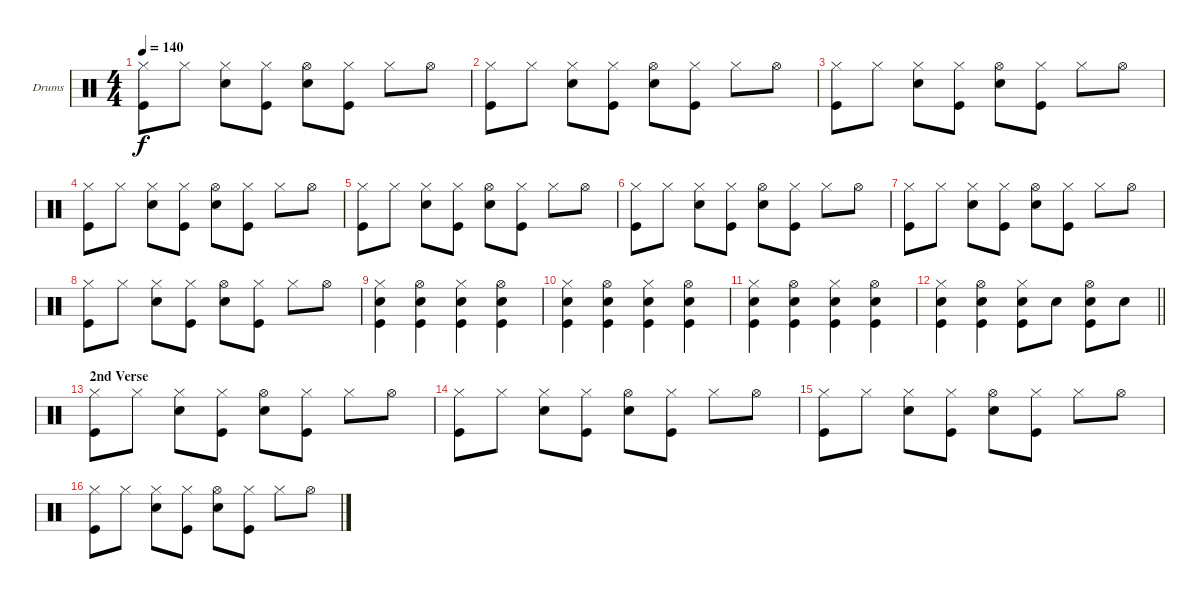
\bracketExtendMode groupsimilarinstruments
\firstSystemTrackNameOrientation horizontal
\otherSystemsTrackNameOrientation horizontal
\track ("Drumkit" "Drums") {instrument percussion}
\staff {score}
\articulation defaults
\ts (4 4)
\tempo 140
\clef neutral
\ks c
("Hi-Hat (closed)" "Kick (hit)").8{dy f} "Hi-Hat (closed)".8 ("Hi-Hat (closed)" "Snare (hit) 2").8 ("Hi-Hat (closed)" "Kick (hit)").8 ("Hi-Hat (open)" "Snare (hit) 2").8 ("Hi-Hat (closed)" "Kick (hit)").8 "Hi-Hat (closed)".8 "Hi-Hat (open)".8 |
("Hi-Hat (closed)" "Kick (hit)").8 "Hi-Hat (closed)".8 ("Hi-Hat (closed)" "Snare (hit) 2").8 ("Hi-Hat (closed)" "Kick (hit)").8 ("Hi-Hat (open)" "Snare (hit) 2").8 ("Hi-Hat (closed)" "Kick (hit)").8 "Hi-Hat (closed)".8 "Hi-Hat (open)".8 |
("Hi-Hat (closed)" "Kick (hit)").8 "Hi-Hat (closed)".8 ("Hi-Hat (closed)" "Snare (hit) 2").8 ("Hi-Hat (closed)" "Kick (hit)").8 ("Hi-Hat (open)" "Snare (hit) 2").8 ("Hi-Hat (closed)" "Kick (hit)").8 "Hi-Hat (closed)".8 "Hi-Hat (open)".8 |
("Hi-Hat (closed)" "Kick (hit)").8 "Hi-Hat (closed)".8 ("Hi-Hat (closed)" "Snare (hit) 2").8 ("Hi-Hat (closed)" "Kick (hit)").8 ("Hi-Hat (open)" "Snare (hit) 2").8 ("Hi-Hat (closed)" "Kick (hit)").8 "Hi-Hat (closed)".8 "Hi-Hat (open)".8 |
("Hi-Hat (closed)" "Kick (hit)").8 "Hi-Hat (closed)".8 ("Hi-Hat (closed)" "Snare (hit) 2").8 ("Hi-Hat (closed)" "Kick (hit)").8 ("Hi-Hat (open)" "Snare (hit) 2").8 ("Hi-Hat (closed)" "Kick (hit)").8 "Hi-Hat (closed)".8 "Hi-Hat (open)".8 |
("Hi-Hat (closed)" "Kick (hit)").8 "Hi-Hat (closed)".8 ("Hi-Hat (closed)" "Snare (hit) 2").8 ("Hi-Hat (closed)" "Kick (hit)").8 ("Hi-Hat (open)" "Snare (hit) 2").8 ("Hi-Hat (closed)" "Kick (hit)").8 "Hi-Hat (closed)".8 "Hi-Hat (open)".8 |
("Hi-Hat (closed)" "Kick (hit)").8 "Hi-Hat (closed)".8 ("Hi-Hat (closed)" "Snare (hit) 2").8 ("Hi-Hat (closed)" "Kick (hit)").8 ("Hi-Hat (open)" "Snare (hit) 2").8 ("Hi-Hat (closed)" "Kick (hit)").8 "Hi-Hat (closed)".8 "Hi-Hat (open)".8 |
("Hi-Hat (closed)" "Kick (hit)").8 "Hi-Hat (closed)".8 ("Hi-Hat (closed)" "Snare (hit) 2").8 ("Hi-Hat (closed)" "Kick (hit)").8 ("Hi-Hat (open)" "Snare (hit) 2").8 ("Hi-Hat (closed)" "Kick (hit)").8 "Hi-Hat (closed)".8 "Hi-Hat (open)".8 |
("Hi-Hat (closed)" "Snare (hit) 2" "Kick (hit)").4 ("Hi-Hat (open)" "Snare (hit) 2" "Kick (hit)").4 ("Hi-Hat (closed)" "Snare (hit) 2" "Kick (hit)").4 ("Hi-Hat (open)" "Snare (hit) 2" "Kick (hit)").4 |
("Hi-Hat (closed)" "Snare (hit) 2" "Kick (hit)").4 ("Hi-Hat (open)" "Snare (hit) 2" "Kick (hit)").4 ("Hi-Hat (closed)" "Snare (hit) 2" "Kick (hit)").4 ("Hi-Hat (open)" "Snare (hit) 2" "Kick (hit)").4 |
("Hi-Hat (closed)" "Snare (hit) 2" "Kick (hit)").4 ("Hi-Hat (open)" "Snare (hit) 2" "Kick (hit)").4 ("Hi-Hat (closed)" "Snare (hit) 2" "Kick (hit)").4 ("Hi-Hat (open)" "Snare (hit) 2" "Kick (hit)").4 |
\barLineRight lightlight
("Hi-Hat (closed)" "Snare (hit) 2" "Kick (hit)").4 ("Hi-Hat (open)" "Snare (hit) 2" "Kick (hit)").4 ("Hi-Hat (closed)" "Snare (hit) 2" "Kick (hit)").8 "Snare (hit) 2".8 ("Hi-Hat (open)" "Snare (hit) 2" "Kick (hit)").8 "Snare (hit) 2".8 |
\section ("" "2nd Verse")
("Hi-Hat (closed)" "Kick (hit)").8 "Hi-Hat (closed)".8 ("Hi-Hat (closed)" "Snare (hit) 2").8 ("Hi-Hat (closed)" "Kick (hit)").8 ("Hi-Hat (open)" "Snare (hit) 2").8 ("Hi-Hat (closed)" "Kick (hit)").8 "Hi-Hat (closed)".8 "Hi-Hat (open)".8 |
("Hi-Hat (closed)" "Kick (hit)").8 "Hi-Hat (closed)".8 ("Hi-Hat (closed)" "Snare (hit) 2").8 ("Hi-Hat (closed)" "Kick (hit)").8 ("Hi-Hat (open)" "Snare (hit) 2").8 ("Hi-Hat (closed)" "Kick (hit)").8 "Hi-Hat (closed)".8 "Hi-Hat (open)".8 |
("Hi-Hat (closed)" "Kick (hit)").8 "Hi-Hat (closed)".8 ("Hi-Hat (closed)" "Snare (hit) 2").8 ("Hi-Hat (closed)" "Kick (hit)").8 ("Hi-Hat (open)" "Snare (hit) 2").8 ("Hi-Hat (closed)" "Kick (hit)").8 "Hi-Hat (closed)".8 "Hi-Hat (open)".8 |
("Hi-Hat (closed)" "Kick (hit)").8 "Hi-Hat (closed)".8 ("Hi-Hat (closed)" "Snare (hit) 2").8 ("Hi-Hat (closed)" "Kick (hit)").8 ("Hi-Hat (open)" "Snare (hit) 2").8 ("Hi-Hat (closed)" "Kick (hit)").8 "Hi-Hat (closed)".8 "Hi-Hat (open)".8
